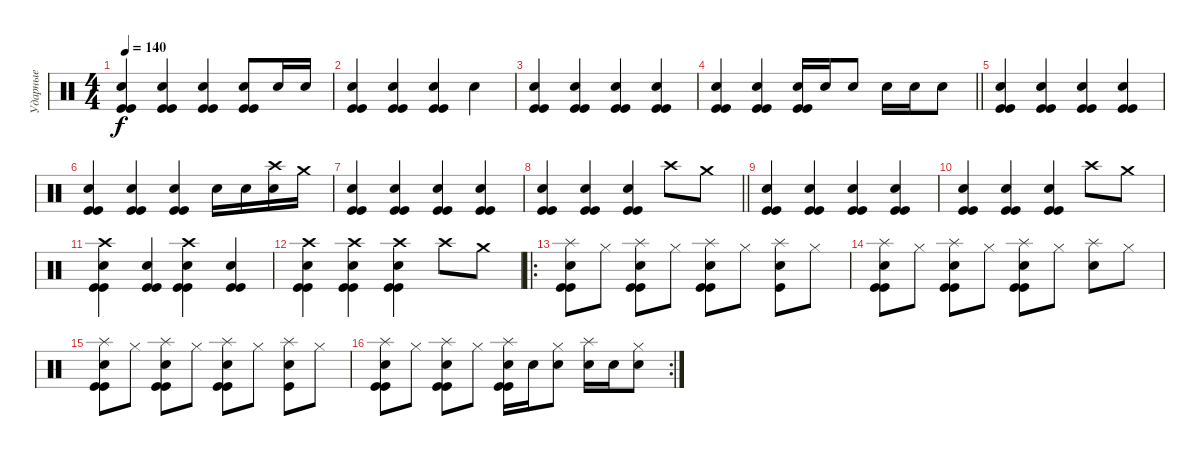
\track ("Ударные" "Ударные") {instrument percussion}
\staff {score}
\articulation defaults
\ts (4 4)
\tempo 140
\clef neutral
\ks c
("Kick (hit)" "Electric Snare (hit)" "Kick (hit)").4{dy f} ("Kick (hit)" "Electric Snare (hit)" "Kick (hit)").4 ("Kick (hit)" "Electric Snare (hit)" "Kick (hit)").4 ("Kick (hit)" "Electric Snare (hit)" "Kick (hit)").8 "Electric Snare (hit)".16 "Electric Snare (hit)".16 |
("Kick (hit)" "Electric Snare (hit)" "Kick (hit)").4 ("Kick (hit)" "Electric Snare (hit)" "Kick (hit)").4 ("Kick (hit)" "Electric Snare (hit)" "Kick (hit)").4 "Electric Snare (hit)".4 |
("Kick (hit)" "Electric Snare (hit)" "Kick (hit)").4 ("Kick (hit)" "Electric Snare (hit)" "Kick (hit)").4 ("Kick (hit)" "Electric Snare (hit)" "Kick (hit)").4 ("Kick (hit)" "Electric Snare (hit)" "Kick (hit)").4 |
\barLineRight lightlight
("Kick (hit)" "Electric Snare (hit)" "Kick (hit)").4 ("Kick (hit)" "Electric Snare (hit)" "Kick (hit)").4 ("Kick (hit)" "Electric Snare (hit)" "Kick (hit)").16 "Electric Snare (hit)".16 "Electric Snare (hit)".8 "Electric Snare (hit)".16 "Electric Snare (hit)".16 "Electric Snare (hit)".8 |
("Kick (hit)" "Electric Snare (hit)" "Kick (hit)").4 ("Kick (hit)" "Electric Snare (hit)" "Kick (hit)").4 ("Kick (hit)" "Electric Snare (hit)" "Kick (hit)").4 ("Kick (hit)" "Electric Snare (hit)" "Kick (hit)").4 |
("Kick (hit)" "Electric Snare (hit)" "Kick (hit)").4 ("Kick (hit)" "Electric Snare (hit)" "Kick (hit)").4 ("Kick (hit)" "Electric Snare (hit)" "Kick (hit)").4 "Electric Snare (hit)".16 "Electric Snare (hit)".16 ("Electric Snare (hit)" "Crash high (hit)").16 "Crash medium (hit)".16 |
("Kick (hit)" "Electric Snare (hit)" "Kick (hit)").4 ("Kick (hit)" "Electric Snare (hit)" "Kick (hit)").4 ("Kick (hit)" "Electric Snare (hit)" "Kick (hit)").4 ("Kick (hit)" "Electric Snare (hit)" "Kick (hit)").4 |
\barLineRight lightlight
("Kick (hit)" "Electric Snare (hit)" "Kick (hit)").4 ("Kick (hit)" "Electric Snare (hit)" "Kick (hit)").4 ("Kick (hit)" "Electric Snare (hit)" "Kick (hit)").4 "Crash high (hit)".8 "Crash medium (hit)".8 |
("Kick (hit)" "Electric Snare (hit)" "Kick (hit)").4 ("Kick (hit)" "Electric Snare (hit)" "Kick (hit)").4 ("Kick (hit)" "Electric Snare (hit)" "Kick (hit)").4 ("Kick (hit)" "Electric Snare (hit)" "Kick (hit)").4 |
("Kick (hit)" "Electric Snare (hit)" "Kick (hit)").4 ("Kick (hit)" "Electric Snare (hit)" "Kick (hit)").4 ("Kick (hit)" "Electric Snare (hit)" "Kick (hit)").4 "Crash high (hit)".8 "Crash medium (hit)".8 |
("Kick (hit)" "Electric Snare (hit)" "Crash high (hit)" "Kick (hit)").4 ("Kick (hit)" "Electric Snare (hit)" "Kick (hit)").4 ("Kick (hit)" "Electric Snare (hit)" "Crash high (hit)" "Kick (hit)").4 ("Kick (hit)" "Electric Snare (hit)" "Kick (hit)").4 |
("Kick (hit)" "Electric Snare (hit)" "Crash high (hit)" "Kick (hit)").4 ("Kick (hit)" "Electric Snare (hit)" "Crash high (hit)" "Kick (hit)").4 ("Kick (hit)" "Electric Snare (hit)" "Crash high (hit)" "Kick (hit)").4 "Crash high (hit)".8 "Crash medium (hit)".8 |
\ro
("Kick (hit)" "Electric Snare (hit)" "Splash (hit)" "Kick (hit)").8 "Hi-Hat (closed)".8 ("Kick (hit)" "Electric Snare (hit)" "Splash (hit)" "Kick (hit)").8 "Hi-Hat (closed)".8 ("Kick (hit)" "Electric Snare (hit)" "Splash (hit)" "Kick (hit)").8 "Hi-Hat (closed)".8 ("Kick (hit)" "Electric Snare (hit)" "Splash (hit)").8 "Hi-Hat (closed)".8 |
("Kick (hit)" "Electric Snare (hit)" "Splash (hit)" "Kick (hit)").8 "Hi-Hat (closed)".8 ("Kick (hit)" "Electric Snare (hit)" "Splash (hit)" "Kick (hit)").8 "Hi-Hat (closed)".8 ("Kick (hit)" "Electric Snare (hit)" "Splash (hit)" "Kick (hit)").8 "Hi-Hat (closed)".8 ("Electric Snare (hit)" "Splash (hit)").8 "Hi-Hat (closed)".8 |
("Kick (hit)" "Electric Snare (hit)" "Splash (hit)" "Kick (hit)").8 "Hi-Hat (closed)".8 ("Kick (hit)" "Electric Snare (hit)" "Splash (hit)" "Kick (hit)").8 "Hi-Hat (closed)".8 ("Kick (hit)" "Electric Snare (hit)" "Splash (hit)" "Kick (hit)").8 "Hi-Hat (closed)".8 ("Kick (hit)" "Electric Snare (hit)" "Splash (hit)").8 "Hi-Hat (closed)".8 |
\rc 2
("Kick (hit)" "Electric Snare (hit)" "Splash (hit)" "Kick (hit)").8 "Hi-Hat (closed)".8 ("Kick (hit)" "Electric Snare (hit)" "Splash (hit)" "Kick (hit)").8 "Hi-Hat (closed)".8 ("Kick (hit)" "Electric Snare (hit)" "Splash (hit)" "Kick (hit)").16 "Electric Snare (hit)".16 ("Electric Snare (hit)" "Hi-Hat (closed)").8 ("Electric Snare (hit)" "Splash (hit)").16 "Electric Snare (hit)".16 ("Electric Snare (hit)" "Hi-Hat (closed)").8
